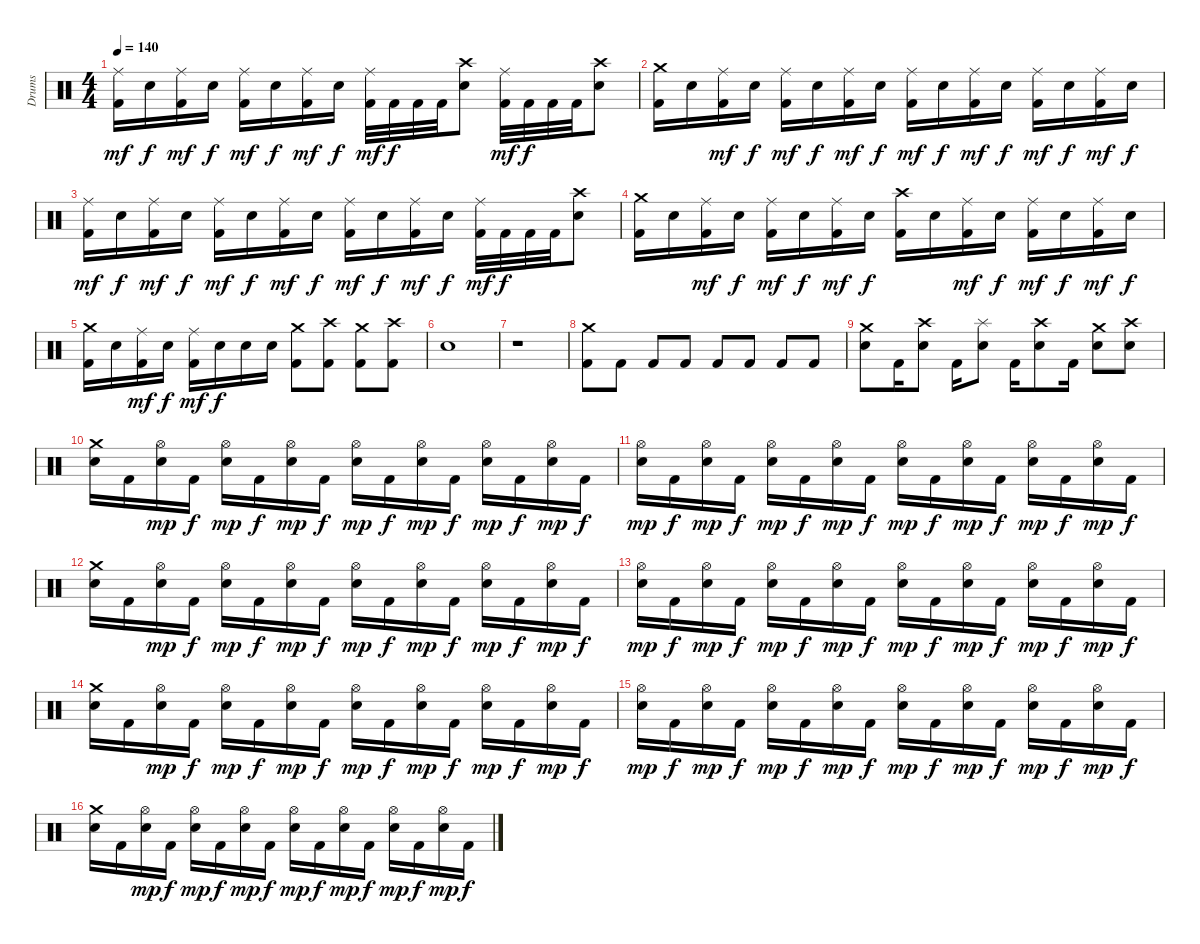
\track ("Drums" "Drums") {instrument percussion}
\staff {score}
\articulation defaults
\ts (4 4)
\tempo 140
\clef neutral
\ks c
("Ride (middle)" "Kick (hit) 2").16{dy mf} "Snare (hit) 2".16{dy f} ("Ride (middle)" "Kick (hit) 2").16{dy mf} "Snare (hit) 2".16{dy f} ("Ride (middle)" "Kick (hit) 2").16{dy mf} "Snare (hit) 2".16{dy f} ("Ride (middle)" "Kick (hit) 2").16{dy mf} "Snare (hit) 2".16{dy f} ("Ride (middle)" "Kick (hit) 2").32{dy mf} "Kick (hit) 2".32{dy f} "Kick (hit) 2".32 "Kick (hit) 2".32 ("Crash high (hit)" "Snare (hit) 2").8 ("Ride (middle)" "Kick (hit) 2").32{dy mf} "Kick (hit) 2".32{dy f} "Kick (hit) 2".32 "Kick (hit) 2".32 ("Crash high (hit)" "Snare (hit) 2").8 |
("Crash medium (hit)" "Kick (hit) 2").16 "Snare (hit) 2".16 ("Ride (middle)" "Kick (hit) 2").16{dy mf} "Snare (hit) 2".16{dy f} ("Ride (middle)" "Kick (hit) 2").16{dy mf} "Snare (hit) 2".16{dy f} ("Ride (middle)" "Kick (hit) 2").16{dy mf} "Snare (hit) 2".16{dy f} ("Ride (middle)" "Kick (hit) 2").16{dy mf} "Snare (hit) 2".16{dy f} ("Ride (middle)" "Kick (hit) 2").16{dy mf} "Snare (hit) 2".16{dy f} ("Ride (middle)" "Kick (hit) 2").16{dy mf} "Snare (hit) 2".16{dy f} ("Ride (middle)" "Kick (hit) 2").16{dy mf} "Snare (hit) 2".16{dy f} |
("Ride (middle)" "Kick (hit) 2").16{dy mf} "Snare (hit) 2".16{dy f} ("Ride (middle)" "Kick (hit) 2").16{dy mf} "Snare (hit) 2".16{dy f} ("Ride (middle)" "Kick (hit) 2").16{dy mf} "Snare (hit) 2".16{dy f} ("Ride (middle)" "Kick (hit) 2").16{dy mf} "Snare (hit) 2".16{dy f} ("Ride (middle)" "Kick (hit) 2").16{dy mf} "Snare (hit) 2".16{dy f} ("Ride (middle)" "Kick (hit) 2").16{dy mf} "Snare (hit) 2".16{dy f} ("Ride (middle)" "Kick (hit) 2").32{dy mf} "Kick (hit) 2".32{dy f} "Kick (hit) 2".32 "Kick (hit) 2".32 ("Crash high (hit)" "Snare (hit) 2").8 |
("Crash medium (hit)" "Kick (hit) 2").16 "Snare (hit) 2".16 ("Ride (middle)" "Kick (hit) 2").16{dy mf} "Snare (hit) 2".16{dy f} ("Ride (middle)" "Kick (hit) 2").16{dy mf} "Snare (hit) 2".16{dy f} ("Ride (middle)" "Kick (hit) 2").16{dy mf} "Snare (hit) 2".16{dy f} ("Crash high (hit)" "Kick (hit) 2").16 "Snare (hit) 2".16 ("Ride (middle)" "Kick (hit) 2").16{dy mf} "Snare (hit) 2".16{dy f} ("Ride (middle)" "Kick (hit) 2").16{dy mf} "Snare (hit) 2".16{dy f} ("Ride (middle)" "Kick (hit) 2").16{dy mf} "Snare (hit) 2".16{dy f} |
("Crash medium (hit)" "Kick (hit) 2").16 "Snare (hit) 2".16 ("Ride (middle)" "Kick (hit) 2").16{dy mf} "Snare (hit) 2".16{dy f} ("Ride (middle)" "Kick (hit) 2").16{dy mf} "Snare (hit) 2".16{dy f} "Snare (hit) 2".16 "Snare (hit) 2".16 ("Crash medium (hit)" "Kick (hit) 2").8 ("Crash high (hit)" "Kick (hit) 2").8 ("Crash medium (hit)" "Kick (hit) 2").8 ("Crash high (hit)" "Kick (hit) 2").8 |
"Snare (hit) 2".1 |
r.1 |
("Crash medium (hit)" "Kick (hit) 2").8 "Kick (hit) 2".8 "Kick (hit) 2".8 "Kick (hit) 2".8 "Kick (hit) 2".8 "Kick (hit) 2".8 "Kick (hit) 2".8 "Kick (hit) 2".8 |
("Crash medium (hit)" "Snare (hit) 2").8 "Kick (hit) 2".16 ("Crash high (hit)" "Snare (hit) 2").8 "Kick (hit) 2".16 ("Splash (hit)" "Snare (hit) 2").8 "Kick (hit) 2".16 ("Crash high (hit)" "Snare (hit) 2").8 "Kick (hit) 2".16 ("Crash medium (hit)" "Snare (hit) 2").8 ("Crash high (hit)" "Snare (hit) 2").8 |
("Crash medium (hit)" "Snare (hit) 2").16 "Kick (hit) 2".16 ("Hi-Hat (open)" "Snare (hit) 2").16{dy mp} "Kick (hit) 2".16{dy f} ("Hi-Hat (open)" "Snare (hit) 2").16{dy mp} "Kick (hit) 2".16{dy f} ("Hi-Hat (open)" "Snare (hit) 2").16{dy mp} "Kick (hit) 2".16{dy f} ("Hi-Hat (open)" "Snare (hit) 2").16{dy mp} "Kick (hit) 2".16{dy f} ("Hi-Hat (open)" "Snare (hit) 2").16{dy mp} "Kick (hit) 2".16{dy f} ("Hi-Hat (open)" "Snare (hit) 2").16{dy mp} "Kick (hit) 2".16{dy f} ("Hi-Hat (open)" "Snare (hit) 2").16{dy mp} "Kick (hit) 2".16{dy f} |
("Hi-Hat (open)" "Snare (hit) 2").16{dy mp} "Kick (hit) 2".16{dy f} ("Hi-Hat (open)" "Snare (hit) 2").16{dy mp} "Kick (hit) 2".16{dy f} ("Hi-Hat (open)" "Snare (hit) 2").16{dy mp} "Kick (hit) 2".16{dy f} ("Hi-Hat (open)" "Snare (hit) 2").16{dy mp} "Kick (hit) 2".16{dy f} ("Hi-Hat (open)" "Snare (hit) 2").16{dy mp} "Kick (hit) 2".16{dy f} ("Hi-Hat (open)" "Snare (hit) 2").16{dy mp} "Kick (hit) 2".16{dy f} ("Hi-Hat (open)" "Snare (hit) 2").16{dy mp} "Kick (hit) 2".16{dy f} ("Hi-Hat (open)" "Snare (hit) 2").16{dy mp} "Kick (hit) 2".16{dy f} |
("Crash medium (hit)" "Snare (hit) 2").16 "Kick (hit) 2".16 ("Hi-Hat (open)" "Snare (hit) 2").16{dy mp} "Kick (hit) 2".16{dy f} ("Hi-Hat (open)" "Snare (hit) 2").16{dy mp} "Kick (hit) 2".16{dy f} ("Hi-Hat (open)" "Snare (hit) 2").16{dy mp} "Kick (hit) 2".16{dy f} ("Hi-Hat (open)" "Snare (hit) 2").16{dy mp} "Kick (hit) 2".16{dy f} ("Hi-Hat (open)" "Snare (hit) 2").16{dy mp} "Kick (hit) 2".16{dy f} ("Hi-Hat (open)" "Snare (hit) 2").16{dy mp} "Kick (hit) 2".16{dy f} ("Hi-Hat (open)" "Snare (hit) 2").16{dy mp} "Kick (hit) 2".16{dy f} |
("Hi-Hat (open)" "Snare (hit) 2").16{dy mp} "Kick (hit) 2".16{dy f} ("Hi-Hat (open)" "Snare (hit) 2").16{dy mp} "Kick (hit) 2".16{dy f} ("Hi-Hat (open)" "Snare (hit) 2").16{dy mp} "Kick (hit) 2".16{dy f} ("Hi-Hat (open)" "Snare (hit) 2").16{dy mp} "Kick (hit) 2".16{dy f} ("Hi-Hat (open)" "Snare (hit) 2").16{dy mp} "Kick (hit) 2".16{dy f} ("Hi-Hat (open)" "Snare (hit) 2").16{dy mp} "Kick (hit) 2".16{dy f} ("Hi-Hat (open)" "Snare (hit) 2").16{dy mp} "Kick (hit) 2".16{dy f} ("Hi-Hat (open)" "Snare (hit) 2").16{dy mp} "Kick (hit) 2".16{dy f} |
("Crash medium (hit)" "Snare (hit) 2").16 "Kick (hit) 2".16 ("Hi-Hat (open)" "Snare (hit) 2").16{dy mp} "Kick (hit) 2".16{dy f} ("Hi-Hat (open)" "Snare (hit) 2").16{dy mp} "Kick (hit) 2".16{dy f} ("Hi-Hat (open)" "Snare (hit) 2").16{dy mp} "Kick (hit) 2".16{dy f} ("Hi-Hat (open)" "Snare (hit) 2").16{dy mp} "Kick (hit) 2".16{dy f} ("Hi-Hat (open)" "Snare (hit) 2").16{dy mp} "Kick (hit) 2".16{dy f} ("Hi-Hat (open)" "Snare (hit) 2").16{dy mp} "Kick (hit) 2".16{dy f} ("Hi-Hat (open)" "Snare (hit) 2").16{dy mp} "Kick (hit) 2".16{dy f} |
("Hi-Hat (open)" "Snare (hit) 2").16{dy mp} "Kick (hit) 2".16{dy f} ("Hi-Hat (open)" "Snare (hit) 2").16{dy mp} "Kick (hit) 2".16{dy f} ("Hi-Hat (open)" "Snare (hit) 2").16{dy mp} "Kick (hit) 2".16{dy f} ("Hi-Hat (open)" "Snare (hit) 2").16{dy mp} "Kick (hit) 2".16{dy f} ("Hi-Hat (open)" "Snare (hit) 2").16{dy mp} "Kick (hit) 2".16{dy f} ("Hi-Hat (open)" "Snare (hit) 2").16{dy mp} "Kick (hit) 2".16{dy f} ("Hi-Hat (open)" "Snare (hit) 2").16{dy mp} "Kick (hit) 2".16{dy f} ("Hi-Hat (open)" "Snare (hit) 2").16{dy mp} "Kick (hit) 2".16{dy f} |
("Crash medium (hit)" "Snare (hit) 2").16 "Kick (hit) 2".16 ("Hi-Hat (open)" "Snare (hit) 2").16{dy mp} "Kick (hit) 2".16{dy f} ("Hi-Hat (open)" "Snare (hit) 2").16{dy mp} "Kick (hit) 2".16{dy f} ("Hi-Hat (open)" "Snare (hit) 2").16{dy mp} "Kick (hit) 2".16{dy f} ("Hi-Hat (open)" "Snare (hit) 2").16{dy mp} "Kick (hit) 2".16{dy f} ("Hi-Hat (open)" "Snare (hit) 2").16{dy mp} "Kick (hit) 2".16{dy f} ("Hi-Hat (open)" "Snare (hit) 2").16{dy mp} "Kick (hit) 2".16{dy f} ("Hi-Hat (open)" "Snare (hit) 2").16{dy mp} "Kick (hit) 2".16{dy f}
